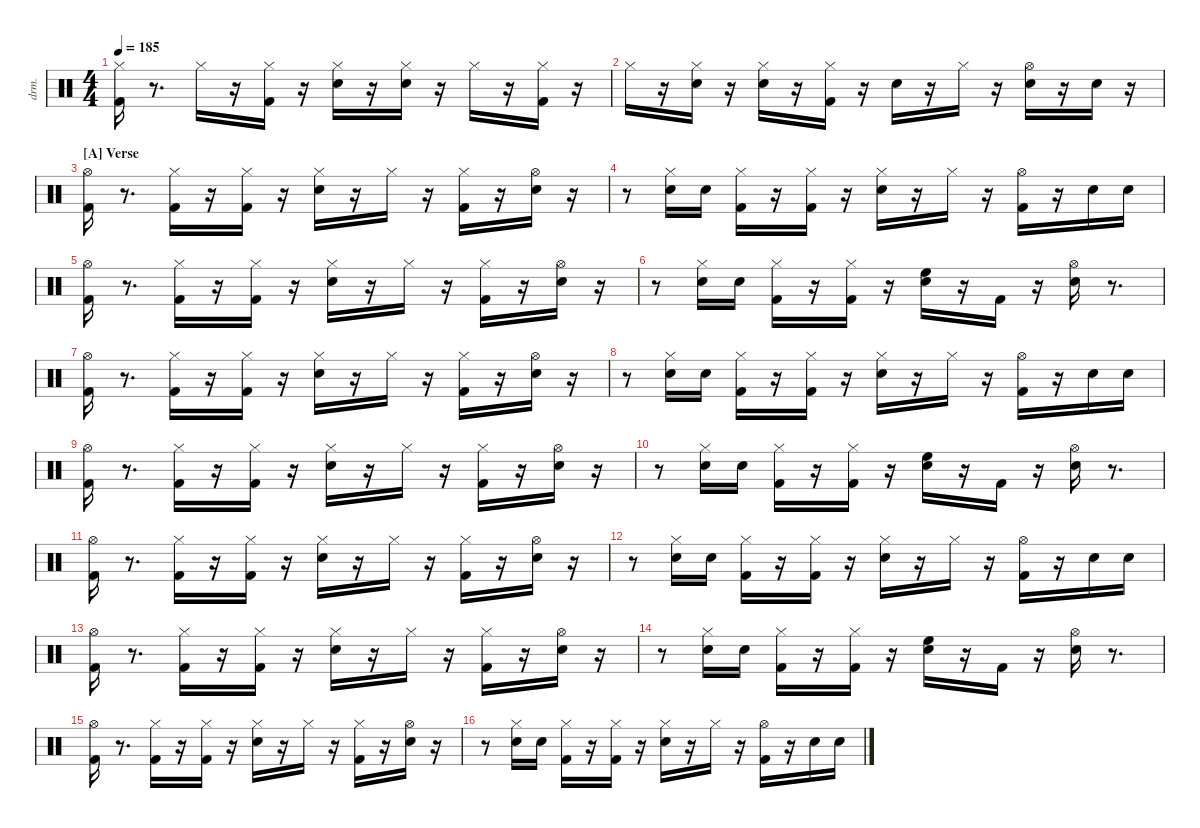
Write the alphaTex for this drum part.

\defaultSystemsLayout 4
\hideDynamics
\bracketExtendMode nobrackets
\otherSystemsTrackNameOrientation horizontal
\track ("drums" "drm.") {instrument percussion}
\staff {score}
\articulation defaults
\ts (4 4)
\tempo 185
\clef neutral
\ks aminor
("Kick (hit) 2" "Hi-Hat (closed)"{acc #}).16{dy ff beam Down} r.8{d beam Down} "Hi-Hat (closed)"{acc #}.16{dy f beam Down} r.16{beam Down} ("Kick (hit) 2" "Hi-Hat (closed)"{acc #}).16{dy ff beam Down} r.16{beam Down} ("Snare (hit) 2" "Hi-Hat (closed)"{acc #}).16{beam Down} r.16{beam Down} ("Snare (hit) 2" "Hi-Hat (closed)"{acc #}).16{dy ppp beam Down} r.16{beam Down} "Hi-Hat (closed)"{acc #}.16{dy mf beam Down} r.16{beam Down} ("Kick (hit) 2" "Hi-Hat (closed)"{acc #}).16{dy f beam Down} r.16{beam Down} |
"Hi-Hat (closed)"{acc #}.16{dy mp beam Down} r.16{beam Down} ("Snare (hit) 2" "Hi-Hat (closed)"{acc #}).16{dy f beam Down} r.16{beam Down} ("Snare (hit) 2" "Hi-Hat (closed)"{acc #}).16{dy pp beam Down} r.16{beam Down} ("Kick (hit) 2" "Hi-Hat (closed)"{acc #}).16{dy f beam Down} r.16{beam Down} "Snare (hit) 2".16{dy ff beam Down} r.16{beam Down} "Hi-Hat (closed)"{acc #}.16{dy pp beam Down} r.16{beam Down} ("Snare (hit) 2" "Hi-Hat (open)"{acc #}).16{dy ff beam Down} r.16{beam Down} "Snare (hit) 2".16{dy mp beam Down} r.16{beam Down} |
\section ("A" "Verse")
("Kick (hit) 2" "Hi-Hat (open)"{acc #}).16{dy fff beam Down} r.8{d beam Down} ("Kick (hit) 2" "Hi-Hat (closed)"{acc #}).16{dy f beam Down} r.16{beam Down} ("Kick (hit) 2" "Hi-Hat (closed)"{acc #}).16{dy ff beam Down} r.16{beam Down} ("Snare (hit) 2" "Hi-Hat (closed)"{acc #}).16{beam Down} r.16{beam Down} "Hi-Hat (closed)"{acc #}.16{dy ppp beam Down} r.16{beam Down} ("Kick (hit) 2" "Hi-Hat (closed)"{acc #}).16{dy ff beam Down} r.16{beam Down} ("Snare (hit) 2" "Hi-Hat (open)"{acc #}).16{beam Down} r.16{beam Down} |
r.8{beam Down} ("Snare (hit) 2" "Hi-Hat (closed)"{acc #}).16{dy f beam Down} "Snare (hit) 2".16{dy pp beam Down} ("Kick (hit) 2" "Hi-Hat (closed)"{acc #}).16{dy f beam Down} r.16{beam Down} ("Kick (hit) 2" "Hi-Hat (closed)"{acc #}).16{dy ff beam Down} r.16{beam Down} ("Snare (hit) 2" "Hi-Hat (closed)"{acc #}).16{beam Down} r.16{beam Down} "Hi-Hat (closed)"{acc #}.16{dy pp beam Down} r.16{beam Down} ("Kick (hit) 2" "Hi-Hat (open)"{acc #}).16{dy ff beam Down} r.16{beam Down} "Snare (hit) 2".16{dy mf beam Down} "Snare (hit) 2".16{dy pp beam Down} |
("Kick (hit) 2" "Hi-Hat (open)"{acc #}).16{dy ff beam Down} r.8{d beam Down} ("Kick (hit) 2" "Hi-Hat (closed)"{acc #}).16{dy f beam Down} r.16{beam Down} ("Kick (hit) 2" "Hi-Hat (closed)"{acc #}).16{dy ff beam Down} r.16{beam Down} ("Snare (hit) 2" "Hi-Hat (closed)"{acc #}).16{beam Down} r.16{beam Down} "Hi-Hat (closed)"{acc #}.16{dy ppp beam Down} r.16{beam Down} ("Kick (hit) 2" "Hi-Hat (closed)"{acc #}).16{dy ff beam Down} r.16{beam Down} ("Snare (hit) 2" "Hi-Hat (open)"{acc #}).16{beam Down} r.16{beam Down} |
r.8{beam Down} ("Snare (hit) 2" "Hi-Hat (closed)"{acc #}).16{dy f beam Down} "Snare (hit) 2".16{dy pp beam Down} ("Kick (hit) 2" "Hi-Hat (closed)"{acc #}).16{dy f beam Down} r.16{beam Down} ("Kick (hit) 2" "Hi-Hat (closed)"{acc #}).16{dy ff beam Down} r.16{beam Down} ("Snare (hit) 2" "High Floor Tom (hit)").16{beam Down} r.16{beam Down} "Kick (hit) 2".16{beam Up} r.16{beam Up} ("Snare (hit) 2" "Hi-Hat (open)"{acc #}).16{beam Down} r.8{d beam Down} |
("Kick (hit) 2" "Hi-Hat (open)"{acc #}).16{beam Down} r.8{d beam Down} ("Kick (hit) 2" "Hi-Hat (closed)"{acc #}).16{dy f beam Down} r.16{beam Down} ("Kick (hit) 2" "Hi-Hat (closed)"{acc #}).16{dy ff beam Down} r.16{beam Down} ("Snare (hit) 2" "Hi-Hat (closed)"{acc #}).16{beam Down} r.16{beam Down} "Hi-Hat (closed)"{acc #}.16{dy ppp beam Down} r.16{beam Down} ("Kick (hit) 2" "Hi-Hat (closed)"{acc #}).16{dy ff beam Down} r.16{beam Down} ("Snare (hit) 2" "Hi-Hat (open)"{acc #}).16{beam Down} r.16{beam Down} |
r.8{beam Down} ("Snare (hit) 2" "Hi-Hat (closed)"{acc #}).16{dy f beam Down} "Snare (hit) 2".16{dy pp beam Down} ("Kick (hit) 2" "Hi-Hat (closed)"{acc #}).16{dy f beam Down} r.16{beam Down} ("Kick (hit) 2" "Hi-Hat (closed)"{acc #}).16{dy ff beam Down} r.16{beam Down} ("Snare (hit) 2" "Hi-Hat (closed)"{acc #}).16{beam Down} r.16{beam Down} "Hi-Hat (closed)"{acc #}.16{dy pp beam Down} r.16{beam Down} ("Kick (hit) 2" "Hi-Hat (open)"{acc #}).16{dy ff beam Down} r.16{beam Down} "Snare (hit) 2".16{dy mf beam Down} "Snare (hit) 2".16{dy pp beam Down} |
("Kick (hit) 2" "Hi-Hat (open)"{acc #}).16{dy ff beam Down} r.8{d beam Down} ("Kick (hit) 2" "Hi-Hat (closed)"{acc #}).16{dy f beam Down} r.16{beam Down} ("Kick (hit) 2" "Hi-Hat (closed)"{acc #}).16{dy ff beam Down} r.16{beam Down} ("Snare (hit) 2" "Hi-Hat (closed)"{acc #}).16{beam Down} r.16{beam Down} "Hi-Hat (closed)"{acc #}.16{dy ppp beam Down} r.16{beam Down} ("Kick (hit) 2" "Hi-Hat (closed)"{acc #}).16{dy ff beam Down} r.16{beam Down} ("Snare (hit) 2" "Hi-Hat (open)"{acc #}).16{beam Down} r.16{beam Down} |
r.8{beam Down} ("Snare (hit) 2" "Hi-Hat (closed)"{acc #}).16{beam Down} "Snare (hit) 2".16{dy pp beam Down} ("Kick (hit) 2" "Hi-Hat (closed)"{acc #}).16{dy f beam Down} r.16{beam Down} ("Kick (hit) 2" "Hi-Hat (closed)"{acc #}).16{dy ff beam Down} r.16{beam Down} ("Snare (hit) 2" "High Floor Tom (hit)").16{beam Down} r.16{beam Down} "Kick (hit) 2".16{beam Up} r.16{beam Up} ("Snare (hit) 2" "Hi-Hat (open)"{acc #}).16{beam Down} r.8{d beam Down} |
("Kick (hit) 2" "Hi-Hat (open)"{acc #}).16{beam Down} r.8{d beam Down} ("Kick (hit) 2" "Hi-Hat (closed)"{acc #}).16{dy f beam Down} r.16{beam Down} ("Kick (hit) 2" "Hi-Hat (closed)"{acc #}).16{dy ff beam Down} r.16{beam Down} ("Snare (hit) 2" "Hi-Hat (closed)"{acc #}).16{beam Down} r.16{beam Down} "Hi-Hat (closed)"{acc #}.16{dy ppp beam Down} r.16{beam Down} ("Kick (hit) 2" "Hi-Hat (closed)"{acc #}).16{dy ff beam Down} r.16{beam Down} ("Snare (hit) 2" "Hi-Hat (open)"{acc #}).16{beam Down} r.16{beam Down} |
r.8{beam Down} ("Snare (hit) 2" "Hi-Hat (closed)"{acc #}).16{beam Down} "Snare (hit) 2".16{dy ppp beam Down} ("Kick (hit) 2" "Hi-Hat (closed)"{acc #}).16{dy f beam Down} r.16{beam Down} ("Kick (hit) 2" "Hi-Hat (closed)"{acc #}).16{dy ff beam Down} r.16{beam Down} ("Snare (hit) 2" "Hi-Hat (closed)"{acc #}).16{beam Down} r.16{beam Down} "Hi-Hat (closed)"{acc #}.16{dy pp beam Down} r.16{beam Down} ("Kick (hit) 2" "Hi-Hat (open)"{acc #}).16{dy ff beam Down} r.16{beam Down} "Snare (hit) 2".16{dy mf beam Down} "Snare (hit) 2".16{dy ppp beam Down} |
("Kick (hit) 2" "Hi-Hat (open)"{acc #}).16{dy ff beam Down} r.8{d beam Down} ("Kick (hit) 2" "Hi-Hat (closed)"{acc #}).16{dy f beam Down} r.16{beam Down} ("Kick (hit) 2" "Hi-Hat (closed)"{acc #}).16{dy ff beam Down} r.16{beam Down} ("Snare (hit) 2" "Hi-Hat (closed)"{acc #}).16{beam Down} r.16{beam Down} "Hi-Hat (closed)"{acc #}.16{dy ppp beam Down} r.16{beam Down} ("Kick (hit) 2" "Hi-Hat (closed)"{acc #}).16{dy ff beam Down} r.16{beam Down} ("Snare (hit) 2" "Hi-Hat (open)"{acc #}).16{beam Down} r.16{beam Down} |
r.8{beam Down} ("Snare (hit) 2" "Hi-Hat (closed)"{acc #}).16{beam Down} "Snare (hit) 2".16{dy pp beam Down} ("Kick (hit) 2" "Hi-Hat (closed)"{acc #}).16{dy f beam Down} r.16{beam Down} ("Kick (hit) 2" "Hi-Hat (closed)"{acc #}).16{dy ff beam Down} r.16{beam Down} ("Snare (hit) 2" "High Floor Tom (hit)").16{beam Down} r.16{beam Down} "Kick (hit) 2".16{beam Up} r.16{beam Up} ("Snare (hit) 2" "Hi-Hat (open)"{acc #}).16{beam Down} r.8{d beam Down} |
("Kick (hit) 2" "Hi-Hat (open)"{acc #}).16{beam Down} r.8{d beam Down} ("Kick (hit) 2" "Hi-Hat (closed)"{acc #}).16{dy f beam Down} r.16{beam Down} ("Kick (hit) 2" "Hi-Hat (closed)"{acc #}).16{dy ff beam Down} r.16{beam Down} ("Snare (hit) 2" "Hi-Hat (closed)"{acc #}).16{beam Down} r.16{beam Down} "Hi-Hat (closed)"{acc #}.16{dy ppp beam Down} r.16{beam Down} ("Kick (hit) 2" "Hi-Hat (closed)"{acc #}).16{dy ff beam Down} r.16{beam Down} ("Snare (hit) 2" "Hi-Hat (open)"{acc #}).16{beam Down} r.16{beam Down} |
r.8{beam Down} ("Snare (hit) 2" "Hi-Hat (closed)"{acc #}).16{beam Down} "Snare (hit) 2".16{dy pp beam Down} ("Kick (hit) 2" "Hi-Hat (closed)"{acc #}).16{dy f beam Down} r.16{beam Down} ("Kick (hit) 2" "Hi-Hat (closed)"{acc #}).16{dy ff beam Down} r.16{beam Down} ("Snare (hit) 2" "Hi-Hat (closed)"{acc #}).16{beam Down} r.16{beam Down} "Hi-Hat (closed)"{acc #}.16{dy pp beam Down} r.16{beam Down} ("Kick (hit) 2" "Hi-Hat (open)"{acc #}).16{dy ff beam Down} r.16{beam Down} "Snare (hit) 2".16{dy mf beam Down} "Snare (hit) 2".16{dy pp beam Down}
